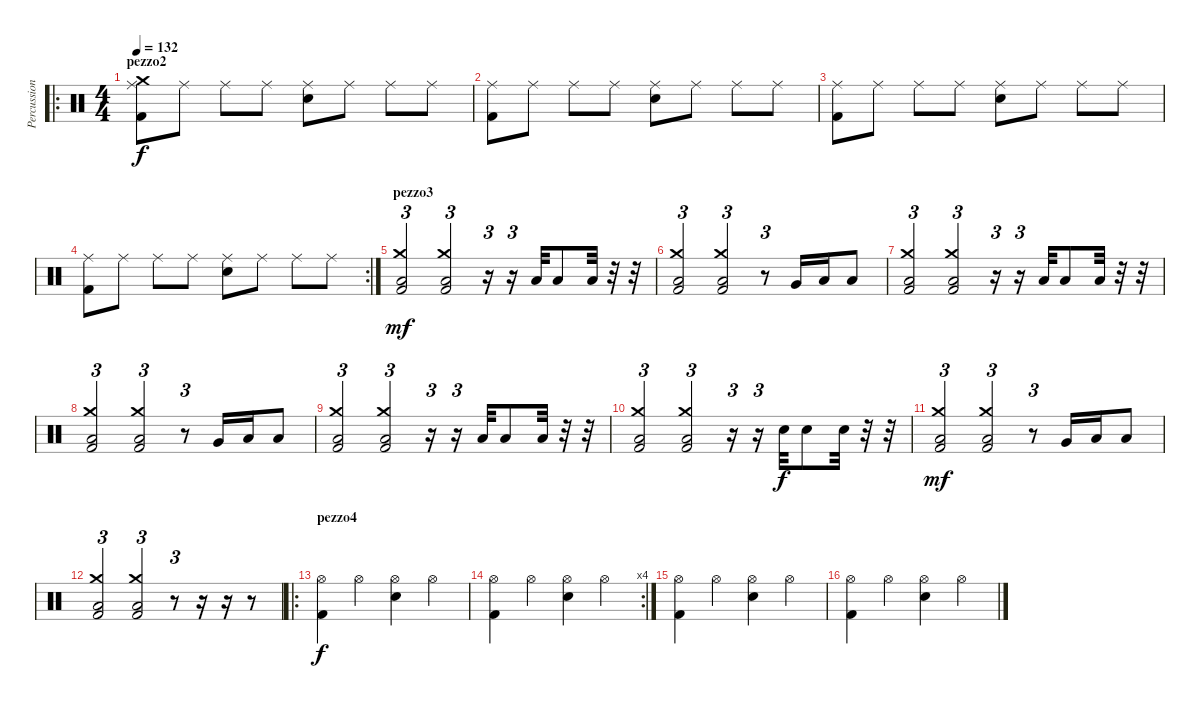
\track ("Percussioni" "Percussion") {instrument percussion}
\staff {score}
\articulation defaults
\ro
\ts (4 4)
\section ("" "pezzo2")
\tempo 132
\clef neutral
\ks c
("Kick (hit) 2" "Ride (middle)" "Crash medium (hit)").8{dy f} "Ride (middle)".8 "Ride (middle)".8 "Ride (middle)".8 ("Electric Snare (hit)" "Ride (middle)").8 "Ride (middle)".8 "Ride (middle)".8 "Ride (middle)".8 |
("Kick (hit) 2" "Ride (middle)").8 "Ride (middle)".8 "Ride (middle)".8 "Ride (middle)".8 ("Electric Snare (hit)" "Ride (middle)").8 "Ride (middle)".8 "Ride (middle)".8 "Ride (middle)".8 |
("Kick (hit) 2" "Ride (middle)").8 "Ride (middle)".8 "Ride (middle)".8 "Ride (middle)".8 ("Electric Snare (hit)" "Ride (middle)").8 "Ride (middle)".8 "Ride (middle)".8 "Ride (middle)".8 |
\rc 2
("Kick (hit) 2" "Ride (middle)").8 "Ride (middle)".8 "Ride (middle)".8 "Ride (middle)".8 ("Electric Snare (hit)" "Ride (middle)").8 "Ride (middle)".8 "Ride (middle)".8 "Ride (middle)".8 |
\section ("" "pezzo3")
("Kick (hit) 2" "Low Floor Tom (hit)" "Crash medium (hit)").2{tu (3 2) dy mf} ("Kick (hit) 2" "Low Floor Tom (hit)" "Crash medium (hit)").2{tu (3 2)} r.16{tu (3 2)} r.16{tu (3 2)} "Low Floor Tom (hit)".32 "Low Floor Tom (hit)".8 "Low Floor Tom (hit)".32 r.32 r.32 |
("Kick (hit) 2" "Low Floor Tom (hit)" "Crash medium (hit)").2{tu (3 2)} ("Kick (hit) 2" "Low Floor Tom (hit)" "Crash medium (hit)").2{tu (3 2)} r.8{tu (3 2)} "Very Low Tom (hit)".16 "Low Floor Tom (hit)".16 "Low Floor Tom (hit)".8 |
("Kick (hit) 2" "Low Floor Tom (hit)" "Crash medium (hit)").2{tu (3 2)} ("Kick (hit) 2" "Low Floor Tom (hit)" "Crash medium (hit)").2{tu (3 2)} r.16{tu (3 2)} r.16{tu (3 2)} "Low Floor Tom (hit)".32 "Low Floor Tom (hit)".8 "Low Floor Tom (hit)".32 r.32 r.32 |
("Kick (hit) 2" "Low Floor Tom (hit)" "Crash medium (hit)").2{tu (3 2)} ("Kick (hit) 2" "Low Floor Tom (hit)" "Crash medium (hit)").2{tu (3 2)} r.8{tu (3 2)} "Very Low Tom (hit)".16 "Low Floor Tom (hit)".16 "Low Floor Tom (hit)".8 |
("Kick (hit) 2" "Low Floor Tom (hit)" "Crash medium (hit)").2{tu (3 2)} ("Kick (hit) 2" "Low Floor Tom (hit)" "Crash medium (hit)").2{tu (3 2)} r.16{tu (3 2)} r.16{tu (3 2)} "Low Floor Tom (hit)".32 "Low Floor Tom (hit)".8 "Low Floor Tom (hit)".32 r.32 r.32 |
("Kick (hit) 2" "Low Floor Tom (hit)" "Crash medium (hit)").2{tu (3 2)} ("Kick (hit) 2" "Low Floor Tom (hit)" "Crash medium (hit)").2{tu (3 2)} r.16{tu (3 2)} r.16{tu (3 2)} "Electric Snare (hit)".32{dy f} "Electric Snare (hit)".8 "Electric Snare (hit)".32 r.32 r.32 |
("Kick (hit) 2" "Low Floor Tom (hit)" "Crash medium (hit)").2{tu (3 2) dy mf} ("Kick (hit) 2" "Low Floor Tom (hit)" "Crash medium (hit)").2{tu (3 2)} r.8{tu (3 2)} "Very Low Tom (hit)".16 "Low Floor Tom (hit)".16 "Low Floor Tom (hit)".8 |
("Kick (hit) 2" "Low Floor Tom (hit)" "Crash medium (hit)").2{tu (3 2)} ("Kick (hit) 2" "Low Floor Tom (hit)" "Crash medium (hit)").2{tu (3 2)} r.8{tu (3 2)} r.16 r.16 r.8 |
\ro
\section ("" "pezzo4")
("Kick (hit) 2" "Hi-Hat (open)").4{dy f} "Hi-Hat (open)".4 ("Electric Snare (hit)" "Hi-Hat (open)").4 "Hi-Hat (open)".4 |
\rc 4
("Kick (hit) 2" "Hi-Hat (open)").4 "Hi-Hat (open)".4 ("Electric Snare (hit)" "Hi-Hat (open)").4 "Hi-Hat (open)".4 |
("Kick (hit) 2" "Hi-Hat (open)").4 "Hi-Hat (open)".4 ("Electric Snare (hit)" "Hi-Hat (open)").4 "Hi-Hat (open)".4 |
("Kick (hit) 2" "Hi-Hat (open)").4 "Hi-Hat (open)".4 ("Electric Snare (hit)" "Hi-Hat (open)").4 "Hi-Hat (open)".4
